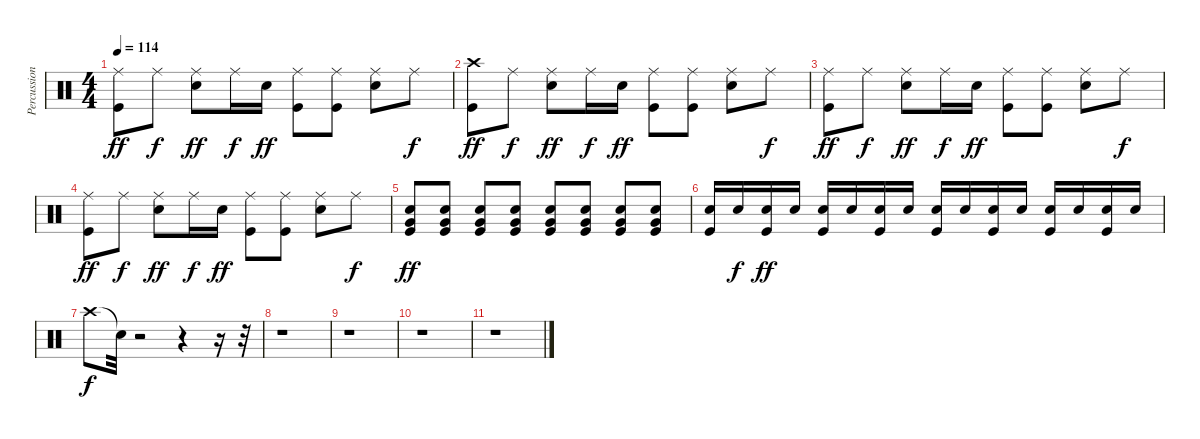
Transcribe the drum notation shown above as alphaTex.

\track ("Percussion" "Percussion") {instrument percussion}
\staff {score}
\articulation defaults
\ts (4 4)
\tempo 114
\clef neutral
\ks c
("Ride (middle)" "Kick (hit)").8{dy ff} "Ride (middle)".8{dy f} ("Ride (middle)" "Snare (hit) 2").8{dy ff} "Ride (middle)".16{dy f} "Snare (hit) 2".16{dy ff} ("Ride (middle)" "Kick (hit)").8 ("Ride (middle)" "Kick (hit)").8 ("Ride (middle)" "Snare (hit) 2").8 "Ride (middle)".8{dy f} |
("Crash high (hit)" "Kick (hit)").8{dy ff} "Ride (middle)".8{dy f} ("Ride (middle)" "Snare (hit) 2").8{dy ff} "Ride (middle)".16{dy f} "Snare (hit) 2".16{dy ff} ("Ride (middle)" "Kick (hit)").8 ("Ride (middle)" "Kick (hit)").8 ("Ride (middle)" "Snare (hit) 2").8 "Ride (middle)".8{dy f} |
("Ride (middle)" "Kick (hit)").8{dy ff} "Ride (middle)".8{dy f} ("Ride (middle)" "Snare (hit) 2").8{dy ff} "Ride (middle)".16{dy f} "Snare (hit) 2".16{dy ff} ("Ride (middle)" "Kick (hit)").8 ("Ride (middle)" "Kick (hit)").8 ("Ride (middle)" "Snare (hit) 2").8 "Ride (middle)".8{dy f} |
("Ride (middle)" "Kick (hit)").8{dy ff} "Ride (middle)".8{dy f} ("Ride (middle)" "Snare (hit) 2").8{dy ff} "Ride (middle)".16{dy f} "Snare (hit) 2".16{dy ff} ("Ride (middle)" "Kick (hit)").8 ("Ride (middle)" "Kick (hit)").8 ("Ride (middle)" "Snare (hit) 2").8 "Ride (middle)".8{dy f} |
("Snare (hit) 2" "Very Low Tom (hit)" "Kick (hit)").8{dy ff} ("Snare (hit) 2" "Very Low Tom (hit)" "Kick (hit)").8 ("Snare (hit) 2" "Very Low Tom (hit)" "Kick (hit)").8 ("Snare (hit) 2" "Very Low Tom (hit)" "Kick (hit)").8 ("Snare (hit) 2" "Very Low Tom (hit)" "Kick (hit)").8 ("Snare (hit) 2" "Very Low Tom (hit)" "Kick (hit)").8 ("Snare (hit) 2" "Very Low Tom (hit)" "Kick (hit)").8 ("Snare (hit) 2" "Very Low Tom (hit)" "Kick (hit)").8 |
("Snare (hit) 2" "Kick (hit)").16 "Snare (hit) 2".16{dy f} ("Snare (hit) 2" "Kick (hit)").16{dy ff} "Snare (hit) 2".16 ("Snare (hit) 2" "Kick (hit)").16 "Snare (hit) 2".16 ("Snare (hit) 2" "Kick (hit)").16 "Snare (hit) 2".16 ("Snare (hit) 2" "Kick (hit)").16 "Snare (hit) 2".16 ("Snare (hit) 2" "Kick (hit)").16 "Snare (hit) 2".16 ("Snare (hit) 2" "Kick (hit)").16 "Snare (hit) 2".16 ("Snare (hit) 2" "Kick (hit)").16 "Snare (hit) 2".16 |
"Crash high (hit)".8{dy f} "Snare (hit)"{t}.32 r.2 r.4 r.16 r.32 |
r.1 |
r.1 |
r.1 |
r.1
